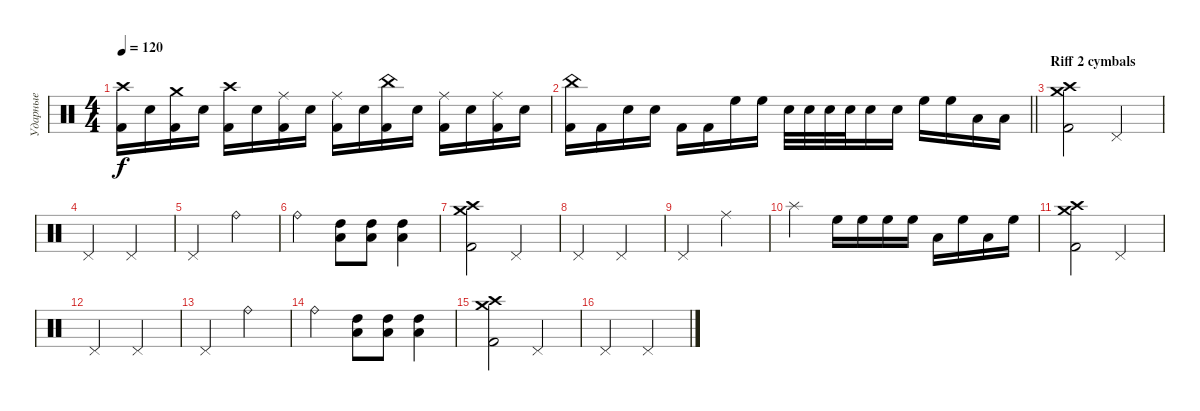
\track ("Ударные" "Ударные") {instrument percussion}
\staff {score}
\articulation defaults
\ts (4 4)
\tempo 120
\clef neutral
\ks c
("Crash high (hit)" "Kick (hit) 2").16{dy f} "Electric Snare (hit)".16 ("Crash medium (hit)" "Kick (hit) 2").16 "Electric Snare (hit)".16 ("Crash high (hit)" "Kick (hit) 2").16 "Electric Snare (hit)".16 ("Ride (middle)" "Kick (hit) 2").16 "Electric Snare (hit)".16 ("Ride (middle)" "Kick (hit) 2").16 "Electric Snare (hit)".16 ("China (hit)" "Kick (hit) 2").16 "Electric Snare (hit)".16 ("Ride (middle)" "Kick (hit) 2").16 "Electric Snare (hit)".16 ("Ride (middle)" "Kick (hit) 2").16 "Electric Snare (hit)".16 |
\barLineRight lightlight
("China (hit)" "Kick (hit) 2").16 "Kick (hit) 2".16 "Electric Snare (hit)".16 "Electric Snare (hit)".16 "Kick (hit) 2".16 "Kick (hit) 2".16 "High Floor Tom (hit)".16 "High Floor Tom (hit)".16 "Electric Snare (hit)".32 "Electric Snare (hit)".32 "Electric Snare (hit)".32 "Electric Snare (hit)".32 "Electric Snare (hit)".16 "Electric Snare (hit)".16 "High Floor Tom (hit)".16 "High Floor Tom (hit)".16 "Low Tom (hit)".16 "Low Tom (hit)".16 |
\section ("" "Riff 2 cymbals")
("Crash high (hit)" "Crash medium (hit)" "Kick (hit) 2").2 "Pedal Hi-Hat (hit)".2 |
"Pedal Hi-Hat (hit)".2 "Pedal Hi-Hat (hit)".2 |
"Pedal Hi-Hat (hit)".2 "Ride (bell)".2 |
"Ride (bell)".2 ("High Tom (hit)" "Low Tom (hit)").8 ("High Tom (hit)" "Low Tom (hit)").8 ("High Tom (hit)" "Low Tom (hit)").4 |
("Crash high (hit)" "Crash medium (hit)" "Kick (hit) 2").2 "Pedal Hi-Hat (hit)".2 |
"Pedal Hi-Hat (hit)".2 "Pedal Hi-Hat (hit)".2 |
"Pedal Hi-Hat (hit)".2 "Ride (middle)".2 |
"Splash (hit)".2 "High Floor Tom (hit)".16 "High Floor Tom (hit)".16 "High Floor Tom (hit)".16 "High Floor Tom (hit)".16 "Low Tom (hit)".16 "High Floor Tom (hit)".16 "Low Tom (hit)".16 "High Floor Tom (hit)".16 |
("Crash high (hit)" "Crash medium (hit)" "Kick (hit) 2").2 "Pedal Hi-Hat (hit)".2 |
"Pedal Hi-Hat (hit)".2 "Pedal Hi-Hat (hit)".2 |
"Pedal Hi-Hat (hit)".2 "Ride (bell)".2 |
"Ride (bell)".2 ("High Tom (hit)" "Low Tom (hit)").8 ("High Tom (hit)" "Low Tom (hit)").8 ("High Tom (hit)" "Low Tom (hit)").4 |
("Crash high (hit)" "Crash medium (hit)" "Kick (hit) 2").2 "Pedal Hi-Hat (hit)".2 |
"Pedal Hi-Hat (hit)".2 "Pedal Hi-Hat (hit)".2
